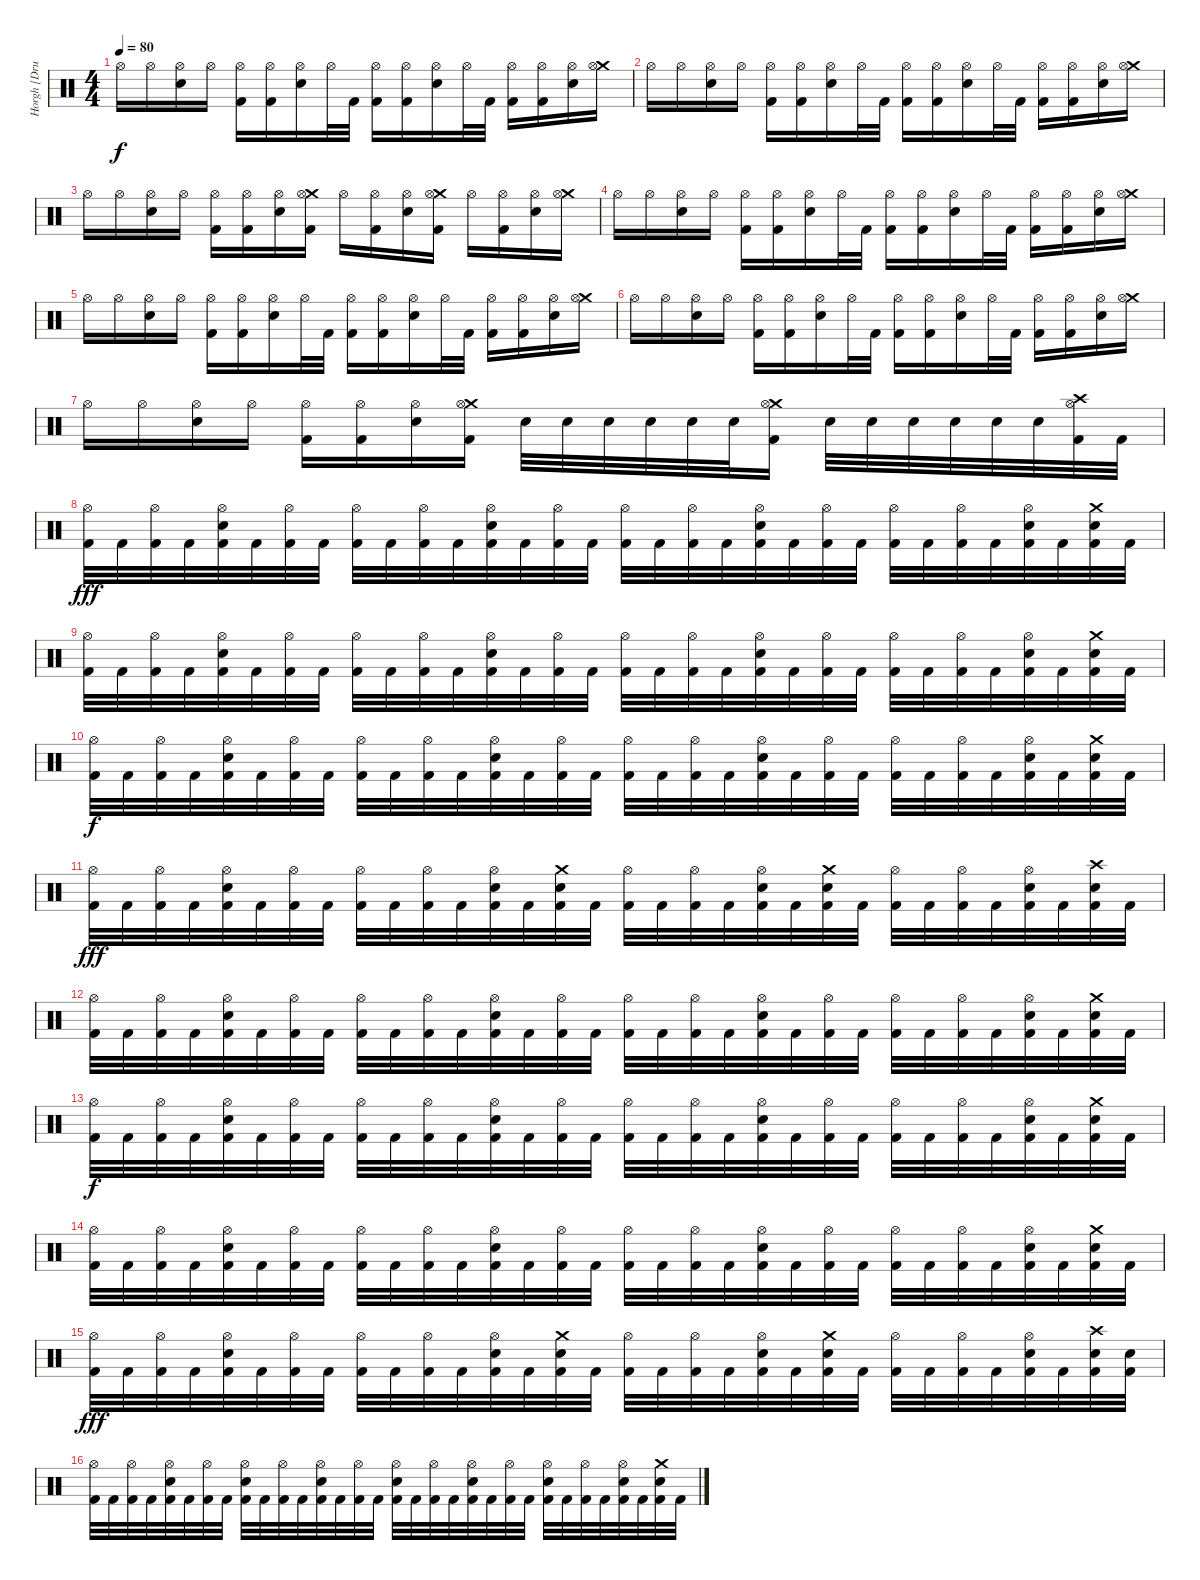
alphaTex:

\track ("Horgh [Drums]" "Horgh [Dru") {instrument percussion}
\staff {score}
\articulation defaults
\ts (4 4)
\tempo 80
\clef neutral
\ks c "Hi-Hat (open)".16{dy f} "Hi-Hat (open)".16
("Hi-Hat (open)" "Snare (hit) 2").16 "Hi-Hat (open)".16 ("Hi-Hat (open)" "Kick (hit) 2").16 ("Hi-Hat (open)" "Kick (hit) 2").16 ("Hi-Hat (open)" "Snare (hit) 2").16 "Hi-Hat (open)".32 "Kick (hit) 2".32 ("Hi-Hat (open)" "Kick (hit) 2").16 ("Hi-Hat (open)" "Kick (hit) 2").16 ("Hi-Hat (open)" "Snare (hit) 2").16 "Hi-Hat (open)".32 "Kick (hit) 2".32 ("Hi-Hat (open)" "Kick (hit) 2").16 ("Hi-Hat (open)" "Kick (hit) 2").16 ("Hi-Hat (open)" "Snare (hit) 2").16 ("Crash medium (hit)" "Hi-Hat (open)").16 |
"Hi-Hat (open)".16 "Hi-Hat (open)".16 ("Hi-Hat (open)" "Snare (hit) 2").16 "Hi-Hat (open)".16 ("Hi-Hat (open)" "Kick (hit) 2").16 ("Hi-Hat (open)" "Kick (hit) 2").16 ("Hi-Hat (open)" "Snare (hit) 2").16 "Hi-Hat (open)".32 "Kick (hit) 2".32 ("Hi-Hat (open)" "Kick (hit) 2").16 ("Hi-Hat (open)" "Kick (hit) 2").16 ("Hi-Hat (open)" "Snare (hit) 2").16 "Hi-Hat (open)".32 "Kick (hit) 2".32 ("Hi-Hat (open)" "Kick (hit) 2").16 ("Hi-Hat (open)" "Kick (hit) 2").16 ("Hi-Hat (open)" "Snare (hit) 2").16 ("Crash medium (hit)" "Hi-Hat (open)").16 |
"Hi-Hat (open)".16 "Hi-Hat (open)".16 ("Hi-Hat (open)" "Snare (hit) 2").16 "Hi-Hat (open)".16 ("Hi-Hat (open)" "Kick (hit) 2").16 ("Hi-Hat (open)" "Kick (hit) 2").16 ("Hi-Hat (open)" "Snare (hit) 2").16 ("Crash medium (hit)" "Hi-Hat (open)" "Kick (hit) 2").16 "Hi-Hat (open)".16 ("Hi-Hat (open)" "Kick (hit) 2").16 ("Hi-Hat (open)" "Snare (hit) 2").16 ("Crash medium (hit)" "Hi-Hat (open)" "Kick (hit) 2").16 "Hi-Hat (open)".16 ("Hi-Hat (open)" "Kick (hit) 2").16 ("Hi-Hat (open)" "Snare (hit) 2").16 ("Crash medium (hit)" "Hi-Hat (open)").16 |
"Hi-Hat (open)".16 "Hi-Hat (open)".16 ("Hi-Hat (open)" "Snare (hit) 2").16 "Hi-Hat (open)".16 ("Hi-Hat (open)" "Kick (hit) 2").16 ("Hi-Hat (open)" "Kick (hit) 2").16 ("Hi-Hat (open)" "Snare (hit) 2").16 "Hi-Hat (open)".32 "Kick (hit) 2".32 ("Hi-Hat (open)" "Kick (hit) 2").16 ("Hi-Hat (open)" "Kick (hit) 2").16 ("Hi-Hat (open)" "Snare (hit) 2").16 "Hi-Hat (open)".32 "Kick (hit) 2".32 ("Hi-Hat (open)" "Kick (hit) 2").16 ("Hi-Hat (open)" "Kick (hit) 2").16 ("Hi-Hat (open)" "Snare (hit) 2").16 ("Crash medium (hit)" "Hi-Hat (open)").16 |
"Hi-Hat (open)".16 "Hi-Hat (open)".16 ("Hi-Hat (open)" "Snare (hit) 2").16 "Hi-Hat (open)".16 ("Hi-Hat (open)" "Kick (hit) 2").16 ("Hi-Hat (open)" "Kick (hit) 2").16 ("Hi-Hat (open)" "Snare (hit) 2").16 "Hi-Hat (open)".32 "Kick (hit) 2".32 ("Hi-Hat (open)" "Kick (hit) 2").16 ("Hi-Hat (open)" "Kick (hit) 2").16 ("Hi-Hat (open)" "Snare (hit) 2").16 "Hi-Hat (open)".32 "Kick (hit) 2".32 ("Hi-Hat (open)" "Kick (hit) 2").16 ("Hi-Hat (open)" "Kick (hit) 2").16 ("Hi-Hat (open)" "Snare (hit) 2").16 ("Crash medium (hit)" "Hi-Hat (open)").16 |
"Hi-Hat (open)".16 "Hi-Hat (open)".16 ("Hi-Hat (open)" "Snare (hit) 2").16 "Hi-Hat (open)".16 ("Hi-Hat (open)" "Kick (hit) 2").16 ("Hi-Hat (open)" "Kick (hit) 2").16 ("Hi-Hat (open)" "Snare (hit) 2").16 "Hi-Hat (open)".32 "Kick (hit) 2".32 ("Hi-Hat (open)" "Kick (hit) 2").16 ("Hi-Hat (open)" "Kick (hit) 2").16 ("Hi-Hat (open)" "Snare (hit) 2").16 "Hi-Hat (open)".32 "Kick (hit) 2".32 ("Hi-Hat (open)" "Kick (hit) 2").16 ("Hi-Hat (open)" "Kick (hit) 2").16 ("Hi-Hat (open)" "Snare (hit) 2").16 ("Crash medium (hit)" "Hi-Hat (open)").16 |
"Hi-Hat (open)".16 "Hi-Hat (open)".16 ("Hi-Hat (open)" "Snare (hit) 2").16 "Hi-Hat (open)".16 ("Hi-Hat (open)" "Kick (hit) 2").16 ("Hi-Hat (open)" "Kick (hit) 2").16 ("Hi-Hat (open)" "Snare (hit) 2").16 ("Crash medium (hit)" "Hi-Hat (open)" "Kick (hit) 2").16 "Snare (hit) 2".32 "Snare (hit) 2".32 "Snare (hit) 2".32 "Snare (hit) 2".32 "Snare (hit) 2".32 "Snare (hit) 2".32 ("Crash medium (hit)" "Hi-Hat (open)" "Kick (hit) 2").16 "Snare (hit) 2".32 "Snare (hit) 2".32 "Snare (hit) 2".32 "Snare (hit) 2".32 "Snare (hit) 2".32 "Snare (hit) 2".32 ("Crash high (hit)" "Hi-Hat (open)" "Kick (hit) 2").32 "Kick (hit) 2".32 |
("Hi-Hat (open)" "Kick (hit) 2").32{dy fff} "Kick (hit) 2".32 ("Hi-Hat (open)" "Kick (hit) 2").32 "Kick (hit) 2".32 ("Hi-Hat (open)" "Snare (hit) 2" "Kick (hit) 2").32 "Kick (hit) 2".32 ("Hi-Hat (open)" "Kick (hit) 2").32 "Kick (hit) 2".32 ("Hi-Hat (open)" "Kick (hit) 2").32 "Kick (hit) 2".32 ("Hi-Hat (open)" "Kick (hit) 2").32 "Kick (hit) 2".32 ("Hi-Hat (open)" "Snare (hit) 2" "Kick (hit) 2").32 "Kick (hit) 2".32 ("Hi-Hat (open)" "Kick (hit) 2").32 "Kick (hit) 2".32 ("Hi-Hat (open)" "Kick (hit) 2").32 "Kick (hit) 2".32 ("Hi-Hat (open)" "Kick (hit) 2").32 "Kick (hit) 2".32 ("Hi-Hat (open)" "Snare (hit) 2" "Kick (hit) 2").32 "Kick (hit) 2".32 ("Hi-Hat (open)" "Kick (hit) 2").32 "Kick (hit) 2".32 ("Hi-Hat (open)" "Kick (hit) 2").32 "Kick (hit) 2".32 ("Hi-Hat (open)" "Kick (hit) 2").32 "Kick (hit) 2".32 ("Hi-Hat (open)" "Snare (hit) 2" "Kick (hit) 2").32 "Kick (hit) 2".32 ("Crash medium (hit)" "Snare (hit) 2" "Kick (hit) 2").32 "Kick (hit) 2".32 |
("Hi-Hat (open)" "Kick (hit) 2").32 "Kick (hit) 2".32 ("Hi-Hat (open)" "Kick (hit) 2").32 "Kick (hit) 2".32 ("Hi-Hat (open)" "Snare (hit) 2" "Kick (hit) 2").32 "Kick (hit) 2".32 ("Hi-Hat (open)" "Kick (hit) 2").32 "Kick (hit) 2".32 ("Hi-Hat (open)" "Kick (hit) 2").32 "Kick (hit) 2".32 ("Hi-Hat (open)" "Kick (hit) 2").32 "Kick (hit) 2".32 ("Hi-Hat (open)" "Snare (hit) 2" "Kick (hit) 2").32 "Kick (hit) 2".32 ("Hi-Hat (open)" "Kick (hit) 2").32 "Kick (hit) 2".32 ("Hi-Hat (open)" "Kick (hit) 2").32 "Kick (hit) 2".32 ("Hi-Hat (open)" "Kick (hit) 2").32 "Kick (hit) 2".32 ("Hi-Hat (open)" "Snare (hit) 2" "Kick (hit) 2").32 "Kick (hit) 2".32 ("Hi-Hat (open)" "Kick (hit) 2").32 "Kick (hit) 2".32 ("Hi-Hat (open)" "Kick (hit) 2").32 "Kick (hit) 2".32 ("Hi-Hat (open)" "Kick (hit) 2").32 "Kick (hit) 2".32 ("Hi-Hat (open)" "Snare (hit) 2" "Kick (hit) 2").32 "Kick (hit) 2".32 ("Crash medium (hit)" "Snare (hit) 2" "Kick (hit) 2").32 "Kick (hit) 2".32 |
("Hi-Hat (open)" "Kick (hit) 2").32{dy f} "Kick (hit) 2".32 ("Hi-Hat (open)" "Kick (hit) 2").32 "Kick (hit) 2".32 ("Hi-Hat (open)" "Snare (hit) 2" "Kick (hit) 2").32 "Kick (hit) 2".32 ("Hi-Hat (open)" "Kick (hit) 2").32 "Kick (hit) 2".32 ("Hi-Hat (open)" "Kick (hit) 2").32 "Kick (hit) 2".32 ("Hi-Hat (open)" "Kick (hit) 2").32 "Kick (hit) 2".32 ("Hi-Hat (open)" "Snare (hit) 2" "Kick (hit) 2").32 "Kick (hit) 2".32 ("Hi-Hat (open)" "Kick (hit) 2").32 "Kick (hit) 2".32 ("Hi-Hat (open)" "Kick (hit) 2").32 "Kick (hit) 2".32 ("Hi-Hat (open)" "Kick (hit) 2").32 "Kick (hit) 2".32 ("Hi-Hat (open)" "Snare (hit) 2" "Kick (hit) 2").32 "Kick (hit) 2".32 ("Hi-Hat (open)" "Kick (hit) 2").32 "Kick (hit) 2".32 ("Hi-Hat (open)" "Kick (hit) 2").32 "Kick (hit) 2".32 ("Hi-Hat (open)" "Kick (hit) 2").32 "Kick (hit) 2".32 ("Hi-Hat (open)" "Snare (hit) 2" "Kick (hit) 2").32 "Kick (hit) 2".32 ("Crash medium (hit)" "Snare (hit) 2" "Kick (hit) 2").32 "Kick (hit) 2".32 |
("Hi-Hat (open)" "Kick (hit) 2").32{dy fff} "Kick (hit) 2".32 ("Hi-Hat (open)" "Kick (hit) 2").32 "Kick (hit) 2".32 ("Hi-Hat (open)" "Snare (hit) 2" "Kick (hit) 2").32 "Kick (hit) 2".32 ("Hi-Hat (open)" "Kick (hit) 2").32 "Kick (hit) 2".32 ("Hi-Hat (open)" "Kick (hit) 2").32 "Kick (hit) 2".32 ("Hi-Hat (open)" "Kick (hit) 2").32 "Kick (hit) 2".32 ("Hi-Hat (open)" "Snare (hit) 2" "Kick (hit) 2").32 "Kick (hit) 2".32 ("Crash medium (hit)" "Snare (hit) 2" "Kick (hit) 2").32 "Kick (hit) 2".32 ("Hi-Hat (open)" "Kick (hit) 2").32 "Kick (hit) 2".32 ("Hi-Hat (open)" "Kick (hit) 2").32 "Kick (hit) 2".32 ("Hi-Hat (open)" "Snare (hit) 2" "Kick (hit) 2").32 "Kick (hit) 2".32 ("Crash medium (hit)" "Snare (hit) 2" "Kick (hit) 2").32 "Kick (hit) 2".32 ("Hi-Hat (open)" "Kick (hit) 2").32 "Kick (hit) 2".32 ("Hi-Hat (open)" "Kick (hit) 2").32 "Kick (hit) 2".32 ("Hi-Hat (open)" "Snare (hit) 2" "Kick (hit) 2").32 "Kick (hit) 2".32 ("Crash high (hit)" "Snare (hit) 2" "Kick (hit) 2").32 "Kick (hit) 2".32 |
("Hi-Hat (open)" "Kick (hit) 2").32 "Kick (hit) 2".32 ("Hi-Hat (open)" "Kick (hit) 2").32 "Kick (hit) 2".32 ("Hi-Hat (open)" "Snare (hit) 2" "Kick (hit) 2").32 "Kick (hit) 2".32 ("Hi-Hat (open)" "Kick (hit) 2").32 "Kick (hit) 2".32 ("Hi-Hat (open)" "Kick (hit) 2").32 "Kick (hit) 2".32 ("Hi-Hat (open)" "Kick (hit) 2").32 "Kick (hit) 2".32 ("Hi-Hat (open)" "Snare (hit) 2" "Kick (hit) 2").32 "Kick (hit) 2".32 ("Hi-Hat (open)" "Kick (hit) 2").32 "Kick (hit) 2".32 ("Hi-Hat (open)" "Kick (hit) 2").32 "Kick (hit) 2".32 ("Hi-Hat (open)" "Kick (hit) 2").32 "Kick (hit) 2".32 ("Hi-Hat (open)" "Snare (hit) 2" "Kick (hit) 2").32 "Kick (hit) 2".32 ("Hi-Hat (open)" "Kick (hit) 2").32 "Kick (hit) 2".32 ("Hi-Hat (open)" "Kick (hit) 2").32 "Kick (hit) 2".32 ("Hi-Hat (open)" "Kick (hit) 2").32 "Kick (hit) 2".32 ("Hi-Hat (open)" "Snare (hit) 2" "Kick (hit) 2").32 "Kick (hit) 2".32 ("Crash medium (hit)" "Snare (hit) 2" "Kick (hit) 2").32 "Kick (hit) 2".32 |
("Hi-Hat (open)" "Kick (hit) 2").32{dy f} "Kick (hit) 2".32 ("Hi-Hat (open)" "Kick (hit) 2").32 "Kick (hit) 2".32 ("Hi-Hat (open)" "Snare (hit) 2" "Kick (hit) 2").32 "Kick (hit) 2".32 ("Hi-Hat (open)" "Kick (hit) 2").32 "Kick (hit) 2".32 ("Hi-Hat (open)" "Kick (hit) 2").32 "Kick (hit) 2".32 ("Hi-Hat (open)" "Kick (hit) 2").32 "Kick (hit) 2".32 ("Hi-Hat (open)" "Snare (hit) 2" "Kick (hit) 2").32 "Kick (hit) 2".32 ("Hi-Hat (open)" "Kick (hit) 2").32 "Kick (hit) 2".32 ("Hi-Hat (open)" "Kick (hit) 2").32 "Kick (hit) 2".32 ("Hi-Hat (open)" "Kick (hit) 2").32 "Kick (hit) 2".32 ("Hi-Hat (open)" "Snare (hit) 2" "Kick (hit) 2").32 "Kick (hit) 2".32 ("Hi-Hat (open)" "Kick (hit) 2").32 "Kick (hit) 2".32 ("Hi-Hat (open)" "Kick (hit) 2").32 "Kick (hit) 2".32 ("Hi-Hat (open)" "Kick (hit) 2").32 "Kick (hit) 2".32 ("Hi-Hat (open)" "Snare (hit) 2" "Kick (hit) 2").32 "Kick (hit) 2".32 ("Crash medium (hit)" "Snare (hit) 2" "Kick (hit) 2").32 "Kick (hit) 2".32 |
("Hi-Hat (open)" "Kick (hit) 2").32 "Kick (hit) 2".32 ("Hi-Hat (open)" "Kick (hit) 2").32 "Kick (hit) 2".32 ("Hi-Hat (open)" "Snare (hit) 2" "Kick (hit) 2").32 "Kick (hit) 2".32 ("Hi-Hat (open)" "Kick (hit) 2").32 "Kick (hit) 2".32 ("Hi-Hat (open)" "Kick (hit) 2").32 "Kick (hit) 2".32 ("Hi-Hat (open)" "Kick (hit) 2").32 "Kick (hit) 2".32 ("Hi-Hat (open)" "Snare (hit) 2" "Kick (hit) 2").32 "Kick (hit) 2".32 ("Hi-Hat (open)" "Kick (hit) 2").32 "Kick (hit) 2".32 ("Hi-Hat (open)" "Kick (hit) 2").32 "Kick (hit) 2".32 ("Hi-Hat (open)" "Kick (hit) 2").32 "Kick (hit) 2".32 ("Hi-Hat (open)" "Snare (hit) 2" "Kick (hit) 2").32 "Kick (hit) 2".32 ("Hi-Hat (open)" "Kick (hit) 2").32 "Kick (hit) 2".32 ("Hi-Hat (open)" "Kick (hit) 2").32 "Kick (hit) 2".32 ("Hi-Hat (open)" "Kick (hit) 2").32 "Kick (hit) 2".32 ("Hi-Hat (open)" "Snare (hit) 2" "Kick (hit) 2").32 "Kick (hit) 2".32 ("Crash medium (hit)" "Snare (hit) 2" "Kick (hit) 2").32 "Kick (hit) 2".32 |
("Hi-Hat (open)" "Kick (hit) 2").32{dy fff} "Kick (hit) 2".32 ("Hi-Hat (open)" "Kick (hit) 2").32 "Kick (hit) 2".32 ("Hi-Hat (open)" "Snare (hit) 2" "Kick (hit) 2").32 "Kick (hit) 2".32 ("Hi-Hat (open)" "Kick (hit) 2").32 "Kick (hit) 2".32 ("Hi-Hat (open)" "Kick (hit) 2").32 "Kick (hit) 2".32 ("Hi-Hat (open)" "Kick (hit) 2").32 "Kick (hit) 2".32 ("Hi-Hat (open)" "Snare (hit) 2" "Kick (hit) 2").32 "Kick (hit) 2".32 ("Crash medium (hit)" "Snare (hit) 2" "Kick (hit) 2").32 "Kick (hit) 2".32 ("Hi-Hat (open)" "Kick (hit) 2").32 "Kick (hit) 2".32 ("Hi-Hat (open)" "Kick (hit) 2").32 "Kick (hit) 2".32 ("Hi-Hat (open)" "Snare (hit) 2" "Kick (hit) 2").32 "Kick (hit) 2".32 ("Crash medium (hit)" "Snare (hit) 2" "Kick (hit) 2").32 "Kick (hit) 2".32 ("Hi-Hat (open)" "Kick (hit) 2").32 "Kick (hit) 2".32 ("Hi-Hat (open)" "Kick (hit) 2").32 "Kick (hit) 2".32 ("Hi-Hat (open)" "Snare (hit) 2" "Kick (hit) 2").32 "Kick (hit) 2".32 ("Crash high (hit)" "Snare (hit) 2" "Kick (hit) 2").32 ("Snare (hit) 2" "Kick (hit) 2").32 |
("Hi-Hat (open)" "Kick (hit) 2").32 "Kick (hit) 2".32 ("Hi-Hat (open)" "Kick (hit) 2").32 "Kick (hit) 2".32 ("Hi-Hat (open)" "Snare (hit) 2" "Kick (hit) 2").32 "Kick (hit) 2".32 ("Hi-Hat (open)" "Kick (hit) 2").32 "Kick (hit) 2".32 ("Hi-Hat (open)" "Snare (hit) 2" "Kick (hit) 2").32 "Kick (hit) 2".32 ("Hi-Hat (open)" "Kick (hit) 2").32 "Kick (hit) 2".32 ("Hi-Hat (open)" "Snare (hit) 2" "Kick (hit) 2").32 "Kick (hit) 2".32 ("Hi-Hat (open)" "Kick (hit) 2").32 "Kick (hit) 2".32 ("Hi-Hat (open)" "Snare (hit) 2" "Kick (hit) 2").32 "Kick (hit) 2".32 ("Hi-Hat (open)" "Kick (hit) 2").32 "Kick (hit) 2".32 ("Hi-Hat (open)" "Snare (hit) 2" "Kick (hit) 2").32 "Kick (hit) 2".32 ("Hi-Hat (open)" "Kick (hit) 2").32 "Kick (hit) 2".32 ("Hi-Hat (open)" "Snare (hit) 2" "Kick (hit) 2").32 "Kick (hit) 2".32 ("Hi-Hat (open)" "Kick (hit) 2").32 "Kick (hit) 2".32 ("Hi-Hat (open)" "Snare (hit) 2" "Kick (hit) 2").32 "Kick (hit) 2".32 ("Crash medium (hit)" "Snare (hit) 2" "Kick (hit) 2").32 "Kick (hit) 2".32
